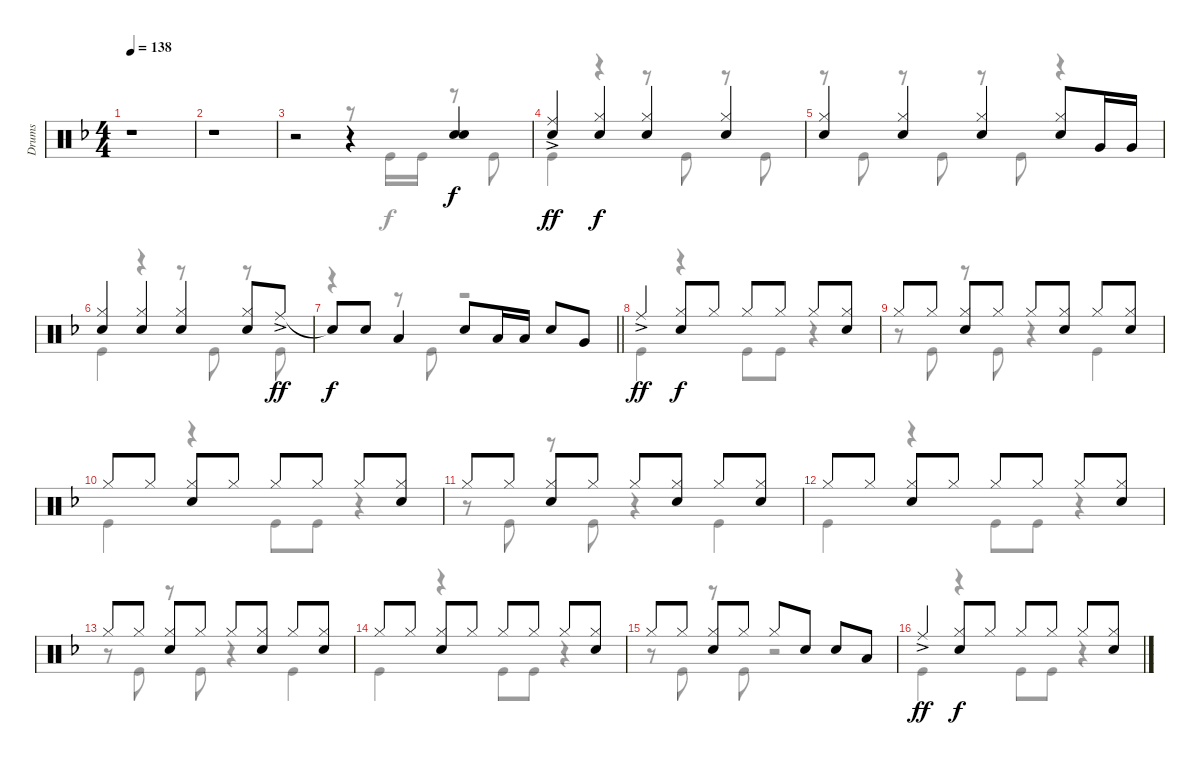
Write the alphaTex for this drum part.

\track ("Drums" "Drums") {instrument percussion}
\staff {score}
\articulation defaults
\voice
\ts (4 4)
\tempo 138
\clef neutral
\ks f
r.1{dy ff} |
r.1 |
r.2 r.4 ("Snare (hit) 2" "Snare (hit) 2").4{dy f} |
("Ride (middle)"{ac} "Snare (hit) 2").4{dy ff} ("Hi-Hat (closed)" "Snare (hit) 2").4{dy f} ("Hi-Hat (closed)" "Snare (hit) 2").4 ("Hi-Hat (closed)" "Snare (hit) 2").4 |
("Hi-Hat (closed)" "Snare (hit) 2").4 ("Hi-Hat (closed)" "Snare (hit) 2").4 ("Hi-Hat (closed)" "Snare (hit) 2").4 ("Hi-Hat (closed)" "Snare (hit) 2").8 "Very Low Tom (hit)".16 "Very Low Tom (hit)".16 |
("Hi-Hat (closed)" "Snare (hit) 2").4 ("Hi-Hat (closed)" "Snare (hit) 2").4 ("Hi-Hat (closed)" "Snare (hit) 2").4 ("Hi-Hat (closed)" "Snare (hit) 2").8 "Ride (middle)"{ac}.8{dy ff} |
\barLineRight lightlight "Snare (hit)"{t}.8{dy f} "Snare (hit) 2".8 "Low Tom (hit)".4 "Snare (hit) 2".8 "Low Tom (hit)".16 "Low Tom (hit)".16 "Snare (hit) 2".8 "Very Low Tom (hit)".8
|
"Ride (middle)"{ac}.4{dy ff} ("Hi-Hat (closed)" "Snare (hit) 2").8{dy f} "Hi-Hat (closed)".8 "Hi-Hat (closed)".8 "Hi-Hat (closed)".8 "Hi-Hat (closed)".8 ("Hi-Hat (closed)" "Snare (hit) 2").8 |
"Hi-Hat (closed)".8 "Hi-Hat (closed)".8 ("Hi-Hat (closed)" "Snare (hit) 2").8 "Hi-Hat (closed)".8 "Hi-Hat (closed)".8 ("Hi-Hat (closed)" "Snare (hit) 2").8 "Hi-Hat (closed)".8 ("Hi-Hat (closed)" "Snare (hit) 2").8 |
"Hi-Hat (closed)".8 "Hi-Hat (closed)".8 ("Hi-Hat (closed)" "Snare (hit) 2").8 "Hi-Hat (closed)".8 "Hi-Hat (closed)".8 "Hi-Hat (closed)".8 "Hi-Hat (closed)".8 ("Hi-Hat (closed)" "Snare (hit) 2").8 |
"Hi-Hat (closed)".8 "Hi-Hat (closed)".8 ("Hi-Hat (closed)" "Snare (hit) 2").8 "Hi-Hat (closed)".8 "Hi-Hat (closed)".8 ("Hi-Hat (closed)" "Snare (hit) 2").8 "Hi-Hat (closed)".8 ("Hi-Hat (closed)" "Snare (hit) 2").8 |
"Hi-Hat (closed)".8 "Hi-Hat (closed)".8 ("Hi-Hat (closed)" "Snare (hit) 2").8 "Hi-Hat (closed)".8 "Hi-Hat (closed)".8 "Hi-Hat (closed)".8 "Hi-Hat (closed)".8 ("Hi-Hat (closed)" "Snare (hit) 2").8 |
"Hi-Hat (closed)".8 "Hi-Hat (closed)".8 ("Hi-Hat (closed)" "Snare (hit) 2").8 "Hi-Hat (closed)".8 "Hi-Hat (closed)".8 ("Hi-Hat (closed)" "Snare (hit) 2").8 "Hi-Hat (closed)".8 ("Hi-Hat (closed)" "Snare (hit) 2").8 |
"Hi-Hat (closed)".8 "Hi-Hat (closed)".8 ("Hi-Hat (closed)" "Snare (hit) 2").8 "Hi-Hat (closed)".8 "Hi-Hat (closed)".8 "Hi-Hat (closed)".8 "Hi-Hat (closed)".8 ("Hi-Hat (closed)" "Snare (hit) 2").8 |
"Hi-Hat (closed)".8 "Hi-Hat (closed)".8 ("Hi-Hat (closed)" "Snare (hit) 2").8 "Hi-Hat (closed)".8 "Hi-Hat (closed)".8 "Snare (hit) 2".8 "Snare (hit) 2".8 "Low Tom (hit)".8 |
"Ride (middle)"{ac}.4{dy ff} ("Hi-Hat (closed)" "Snare (hit) 2").8{dy f} "Hi-Hat (closed)".8 "Hi-Hat (closed)".8 "Hi-Hat (closed)".8 "Hi-Hat (closed)".8 ("Hi-Hat (closed)" "Snare (hit) 2").8
\voice
\clef neutral
\ottava regular
\simile none
\ks f
r.1{dy f} |
r.1 |
r.2 r.8 "Kick (hit)".16 "Kick (hit)".16 r.8 "Kick (hit)".8 |
"Kick (hit)".4 r.4 r.8 "Kick (hit)".8 r.8 "Kick (hit)".8 |
r.8 "Kick (hit)".8 r.8 "Kick (hit)".8 r.8 "Kick (hit)".8 r.4 |
"Kick (hit)".4 r.4 r.8 "Kick (hit)".8 r.8 "Kick (hit)".8 |
\barLineRight lightlight
r.4 r.8 "Kick (hit)".8 r.2 |
"Kick (hit)".4 r.4 "Kick (hit)".8 "Kick (hit)".8 r.4 |
r.8 "Kick (hit)".8 r.8 "Kick (hit)".8 r.4 "Kick (hit)".4 |
"Kick (hit)".4 r.4 "Kick (hit)".8 "Kick (hit)".8 r.4 |
r.8 "Kick (hit)".8 r.8 "Kick (hit)".8 r.4 "Kick (hit)".4 |
"Kick (hit)".4 r.4 "Kick (hit)".8 "Kick (hit)".8 r.4 |
r.8 "Kick (hit)".8 r.8 "Kick (hit)".8 r.4 "Kick (hit)".4 |
"Kick (hit)".4 r.4 "Kick (hit)".8 "Kick (hit)".8 r.4 |
r.8 "Kick (hit)".8 r.8 "Kick (hit)".8 r.2 |
"Kick (hit)".4 r.4 "Kick (hit)".8 "Kick (hit)".8 r.4
